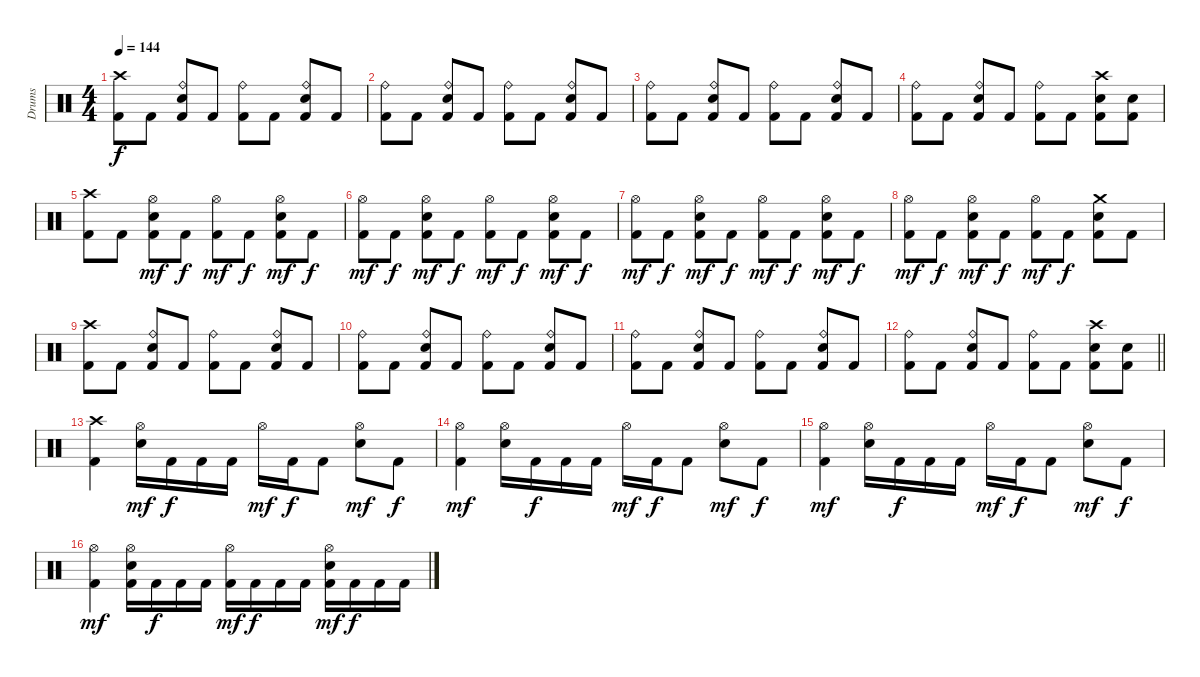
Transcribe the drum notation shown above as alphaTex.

\track ("Drums" "Drums") {instrument percussion}
\staff {score}
\articulation defaults
\ts (4 4)
\tempo 144
\clef neutral
\ks c
("Crash high (hit)" "Kick (hit) 2").8{dy f} "Kick (hit) 2".8 ("Ride (bell)" "Electric Snare (hit)" "Kick (hit) 2").8 "Kick (hit) 2".8 ("Ride (bell)" "Kick (hit) 2").8 "Kick (hit) 2".8 ("Ride (bell)" "Electric Snare (hit)" "Kick (hit) 2").8 "Kick (hit) 2".8 |
("Ride (bell)" "Kick (hit) 2").8 "Kick (hit) 2".8 ("Ride (bell)" "Electric Snare (hit)" "Kick (hit) 2").8 "Kick (hit) 2".8 ("Ride (bell)" "Kick (hit) 2").8 "Kick (hit) 2".8 ("Ride (bell)" "Electric Snare (hit)" "Kick (hit) 2").8 "Kick (hit) 2".8 |
("Ride (bell)" "Kick (hit) 2").8 "Kick (hit) 2".8 ("Ride (bell)" "Electric Snare (hit)" "Kick (hit) 2").8 "Kick (hit) 2".8 ("Ride (bell)" "Kick (hit) 2").8 "Kick (hit) 2".8 ("Ride (bell)" "Electric Snare (hit)" "Kick (hit) 2").8 "Kick (hit) 2".8 |
("Ride (bell)" "Kick (hit) 2").8 "Kick (hit) 2".8 ("Ride (bell)" "Electric Snare (hit)" "Kick (hit) 2").8 "Kick (hit) 2".8 ("Ride (bell)" "Kick (hit) 2").8 "Kick (hit) 2".8 ("Crash high (hit)" "Electric Snare (hit)" "Kick (hit) 2").8 ("Electric Snare (hit)" "Kick (hit) 2").8 |
("Crash high (hit)" "Kick (hit) 2").8 "Kick (hit) 2".8 ("Hi-Hat (open)" "Electric Snare (hit)" "Kick (hit) 2").8{dy mf} "Kick (hit) 2".8{dy f} ("Hi-Hat (open)" "Kick (hit) 2").8{dy mf} "Kick (hit) 2".8{dy f} ("Hi-Hat (open)" "Electric Snare (hit)" "Kick (hit) 2").8{dy mf} "Kick (hit) 2".8{dy f} |
("Hi-Hat (open)" "Kick (hit) 2").8{dy mf} "Kick (hit) 2".8{dy f} ("Hi-Hat (open)" "Electric Snare (hit)" "Kick (hit) 2").8{dy mf} "Kick (hit) 2".8{dy f} ("Hi-Hat (open)" "Kick (hit) 2").8{dy mf} "Kick (hit) 2".8{dy f} ("Hi-Hat (open)" "Electric Snare (hit)" "Kick (hit) 2").8{dy mf} "Kick (hit) 2".8{dy f} |
("Hi-Hat (open)" "Kick (hit) 2").8{dy mf} "Kick (hit) 2".8{dy f} ("Hi-Hat (open)" "Electric Snare (hit)" "Kick (hit) 2").8{dy mf} "Kick (hit) 2".8{dy f} ("Hi-Hat (open)" "Kick (hit) 2").8{dy mf} "Kick (hit) 2".8{dy f} ("Hi-Hat (open)" "Electric Snare (hit)" "Kick (hit) 2").8{dy mf} "Kick (hit) 2".8{dy f} |
("Hi-Hat (open)" "Kick (hit) 2").8{dy mf} "Kick (hit) 2".8{dy f} ("Hi-Hat (open)" "Electric Snare (hit)" "Kick (hit) 2").8{dy mf} "Kick (hit) 2".8{dy f} ("Hi-Hat (open)" "Kick (hit) 2").8{dy mf} "Kick (hit) 2".8{dy f} ("Crash medium (hit)" "Electric Snare (hit)" "Kick (hit) 2").8 "Kick (hit) 2".8 |
("Crash high (hit)" "Kick (hit) 2").8 "Kick (hit) 2".8 ("Ride (bell)" "Electric Snare (hit)" "Kick (hit) 2").8 "Kick (hit) 2".8 ("Ride (bell)" "Kick (hit) 2").8 "Kick (hit) 2".8 ("Ride (bell)" "Electric Snare (hit)" "Kick (hit) 2").8 "Kick (hit) 2".8 |
("Ride (bell)" "Kick (hit) 2").8 "Kick (hit) 2".8 ("Ride (bell)" "Electric Snare (hit)" "Kick (hit) 2").8 "Kick (hit) 2".8 ("Ride (bell)" "Kick (hit) 2").8 "Kick (hit) 2".8 ("Ride (bell)" "Electric Snare (hit)" "Kick (hit) 2").8 "Kick (hit) 2".8 |
("Ride (bell)" "Kick (hit) 2").8 "Kick (hit) 2".8 ("Ride (bell)" "Electric Snare (hit)" "Kick (hit) 2").8 "Kick (hit) 2".8 ("Ride (bell)" "Kick (hit) 2").8 "Kick (hit) 2".8 ("Ride (bell)" "Electric Snare (hit)" "Kick (hit) 2").8 "Kick (hit) 2".8 |
\barLineRight lightlight
("Ride (bell)" "Kick (hit) 2").8 "Kick (hit) 2".8 ("Ride (bell)" "Electric Snare (hit)" "Kick (hit) 2").8 "Kick (hit) 2".8 ("Ride (bell)" "Kick (hit) 2").8 "Kick (hit) 2".8 ("Crash high (hit)" "Electric Snare (hit)" "Kick (hit) 2").8 ("Electric Snare (hit)" "Kick (hit) 2").8 |
\section ("" "")
("Crash high (hit)" "Kick (hit) 2").4 ("Hi-Hat (open)" "Electric Snare (hit)").16{dy mf} "Kick (hit) 2".16{dy f} "Kick (hit) 2".16 "Kick (hit) 2".16 "Hi-Hat (open)".16{dy mf} "Kick (hit) 2".16{dy f} "Kick (hit) 2".8 ("Hi-Hat (open)" "Electric Snare (hit)").8{dy mf} "Kick (hit) 2".8{dy f} |
("Hi-Hat (open)" "Kick (hit) 2").4{dy mf} ("Hi-Hat (open)" "Electric Snare (hit)").16 "Kick (hit) 2".16{dy f} "Kick (hit) 2".16 "Kick (hit) 2".16 "Hi-Hat (open)".16{dy mf} "Kick (hit) 2".16{dy f} "Kick (hit) 2".8 ("Hi-Hat (open)" "Electric Snare (hit)").8{dy mf} "Kick (hit) 2".8{dy f} |
("Hi-Hat (open)" "Kick (hit) 2").4{dy mf} ("Hi-Hat (open)" "Electric Snare (hit)").16 "Kick (hit) 2".16{dy f} "Kick (hit) 2".16 "Kick (hit) 2".16 "Hi-Hat (open)".16{dy mf} "Kick (hit) 2".16{dy f} "Kick (hit) 2".8 ("Hi-Hat (open)" "Electric Snare (hit)").8{dy mf} "Kick (hit) 2".8{dy f} |
("Hi-Hat (open)" "Kick (hit) 2").4{dy mf} ("Hi-Hat (open)" "Electric Snare (hit)" "Kick (hit) 2").16 "Kick (hit) 2".16{dy f} "Kick (hit) 2".16 "Kick (hit) 2".16 ("Hi-Hat (open)" "Kick (hit) 2").16{dy mf} "Kick (hit) 2".16{dy f} "Kick (hit) 2".16 "Kick (hit) 2".16 ("Hi-Hat (open)" "Electric Snare (hit)" "Kick (hit) 2").16{dy mf} "Kick (hit) 2".16{dy f} "Kick (hit) 2".16 "Kick (hit) 2".16
